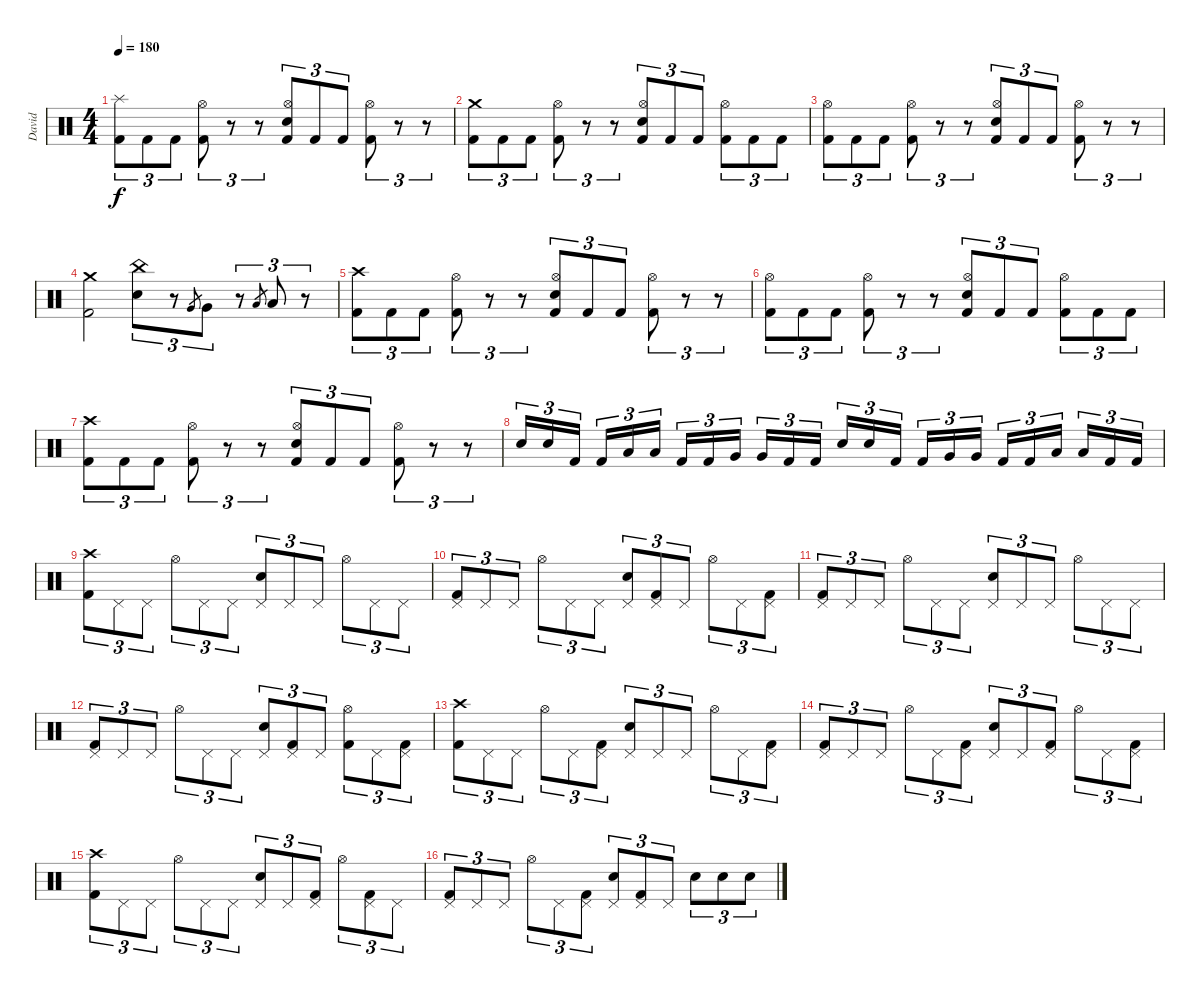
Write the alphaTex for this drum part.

\track ("David" "David") {instrument percussion}
\staff {score}
\articulation defaults
\ts (4 4)
\tempo 180
\clef neutral
\ks c
("Splash (hit)" "Kick (hit) 2").8{tu (3 2) dy f} "Kick (hit) 2".8{tu (3 2)} "Kick (hit) 2".8{tu (3 2)} ("Hi-Hat (open)" "Kick (hit) 2").8{tu (3 2)} r.8{tu (3 2)} r.8{tu (3 2)} ("Hi-Hat (open)" "Electric Snare (hit)" "Kick (hit) 2").8{tu (3 2)} "Kick (hit) 2".8{tu (3 2)} "Kick (hit) 2".8{tu (3 2)} ("Hi-Hat (open)" "Kick (hit) 2").8{tu (3 2)} r.8{tu (3 2)} r.8{tu (3 2)} |
("Crash medium (hit)" "Kick (hit) 2").8{tu (3 2)} "Kick (hit) 2".8{tu (3 2)} "Kick (hit) 2".8{tu (3 2)} ("Hi-Hat (open)" "Kick (hit) 2").8{tu (3 2)} r.8{tu (3 2)} r.8{tu (3 2)} ("Hi-Hat (open)" "Electric Snare (hit)" "Kick (hit) 2").8{tu (3 2)} "Kick (hit) 2".8{tu (3 2)} "Kick (hit) 2".8{tu (3 2)} ("Hi-Hat (open)" "Kick (hit) 2").8{tu (3 2)} "Kick (hit) 2".8{tu (3 2)} "Kick (hit) 2".8{tu (3 2)} |
("Hi-Hat (open)" "Kick (hit) 2").8{tu (3 2)} "Kick (hit) 2".8{tu (3 2)} "Kick (hit) 2".8{tu (3 2)} ("Hi-Hat (open)" "Kick (hit) 2").8{tu (3 2)} r.8{tu (3 2)} r.8{tu (3 2)} ("Hi-Hat (open)" "Electric Snare (hit)" "Kick (hit) 2").8{tu (3 2)} "Kick (hit) 2".8{tu (3 2)} "Kick (hit) 2".8{tu (3 2)} ("Hi-Hat (open)" "Kick (hit) 2").8{tu (3 2)} r.8{tu (3 2)} r.8{tu (3 2)} |
("Crash medium (hit)" "Kick (hit) 2").2 ("China (hit)" "Electric Snare (hit)").8{tu (3 2)} r.8{tu (3 2)} "Very Low Tom (hit)".8{gr} "Very Low Tom (hit)".8{tu (3 2)} r.8{tu (3 2)} "Low Floor Tom (hit)".8{gr} "Low Floor Tom (hit)".8{tu (3 2)} r.8{tu (3 2)} |
("Crash high (hit)" "Kick (hit) 2").8{tu (3 2)} "Kick (hit) 2".8{tu (3 2)} "Kick (hit) 2".8{tu (3 2)} ("Hi-Hat (open)" "Kick (hit) 2").8{tu (3 2)} r.8{tu (3 2)} r.8{tu (3 2)} ("Hi-Hat (open)" "Electric Snare (hit)" "Kick (hit) 2").8{tu (3 2)} "Kick (hit) 2".8{tu (3 2)} "Kick (hit) 2".8{tu (3 2)} ("Hi-Hat (open)" "Kick (hit) 2").8{tu (3 2)} r.8{tu (3 2)} r.8{tu (3 2)} |
("Hi-Hat (open)" "Kick (hit) 2").8{tu (3 2)} "Kick (hit) 2".8{tu (3 2)} "Kick (hit) 2".8{tu (3 2)} ("Hi-Hat (open)" "Kick (hit) 2").8{tu (3 2)} r.8{tu (3 2)} r.8{tu (3 2)} ("Hi-Hat (open)" "Electric Snare (hit)" "Kick (hit) 2").8{tu (3 2)} "Kick (hit) 2".8{tu (3 2)} "Kick (hit) 2".8{tu (3 2)} ("Hi-Hat (open)" "Kick (hit) 2").8{tu (3 2)} "Kick (hit) 2".8{tu (3 2)} "Kick (hit) 2".8{tu (3 2)} |
("Crash high (hit)" "Kick (hit) 2").8{tu (3 2)} "Kick (hit) 2".8{tu (3 2)} "Kick (hit) 2".8{tu (3 2)} ("Hi-Hat (open)" "Kick (hit) 2").8{tu (3 2)} r.8{tu (3 2)} r.8{tu (3 2)} ("Hi-Hat (open)" "Electric Snare (hit)" "Kick (hit) 2").8{tu (3 2)} "Kick (hit) 2".8{tu (3 2)} "Kick (hit) 2".8{tu (3 2)} ("Hi-Hat (open)" "Kick (hit) 2").8{tu (3 2)} r.8{tu (3 2)} r.8{tu (3 2)} |
"Electric Snare (hit)".16{tu (3 2)} "Electric Snare (hit)".16{tu (3 2)} "Kick (hit) 2".16{tu (3 2) beam splitsecondary} "Kick (hit) 2".16{tu (3 2)} "Low Tom (hit)".16{tu (3 2)} "Low Tom (hit)".16{tu (3 2)} "Kick (hit) 2".16{tu (3 2)} "Kick (hit) 2".16{tu (3 2)} "Very Low Tom (hit)".16{tu (3 2) beam splitsecondary} "Very Low Tom (hit)".16{tu (3 2)} "Kick (hit) 2".16{tu (3 2)} "Kick (hit) 2".16{tu (3 2)} "Electric Snare (hit)".16{tu (3 2)} "Electric Snare (hit)".16{tu (3 2)} "Kick (hit) 2".16{tu (3 2) beam splitsecondary} "Kick (hit) 2".16{tu (3 2)} "Very Low Tom (hit)".16{tu (3 2)} "Very Low Tom (hit)".16{tu (3 2)} "Kick (hit) 2".16{tu (3 2)} "Kick (hit) 2".16{tu (3 2)} "Low Floor Tom (hit)".16{tu (3 2) beam splitsecondary} "Low Floor Tom (hit)".16{tu (3 2)} "Kick (hit) 2".16{tu (3 2)} "Kick (hit) 2".16{tu (3 2)} |
("Crash high (hit)" "Kick (hit) 2").8{tu (3 2)} "Pedal Hi-Hat (hit)".8{tu (3 2)} "Pedal Hi-Hat (hit)".8{tu (3 2)} "Hi-Hat (open)".8{tu (3 2)} "Pedal Hi-Hat (hit)".8{tu (3 2)} "Pedal Hi-Hat (hit)".8{tu (3 2)} ("Pedal Hi-Hat (hit)" "Electric Snare (hit)").8{tu (3 2)} "Pedal Hi-Hat (hit)".8{tu (3 2)} "Pedal Hi-Hat (hit)".8{tu (3 2)} "Hi-Hat (open)".8{tu (3 2)} "Pedal Hi-Hat (hit)".8{tu (3 2)} "Pedal Hi-Hat (hit)".8{tu (3 2)} |
("Pedal Hi-Hat (hit)" "Kick (hit) 2").8{tu (3 2)} "Pedal Hi-Hat (hit)".8{tu (3 2)} "Pedal Hi-Hat (hit)".8{tu (3 2)} "Hi-Hat (open)".8{tu (3 2)} "Pedal Hi-Hat (hit)".8{tu (3 2)} "Pedal Hi-Hat (hit)".8{tu (3 2)} ("Pedal Hi-Hat (hit)" "Electric Snare (hit)").8{tu (3 2)} ("Pedal Hi-Hat (hit)" "Kick (hit) 2").8{tu (3 2)} "Pedal Hi-Hat (hit)".8{tu (3 2)} "Hi-Hat (open)".8{tu (3 2)} "Pedal Hi-Hat (hit)".8{tu (3 2)} ("Pedal Hi-Hat (hit)" "Kick (hit) 2").8{tu (3 2)} |
("Pedal Hi-Hat (hit)" "Kick (hit) 2").8{tu (3 2)} "Pedal Hi-Hat (hit)".8{tu (3 2)} "Pedal Hi-Hat (hit)".8{tu (3 2)} "Hi-Hat (open)".8{tu (3 2)} "Pedal Hi-Hat (hit)".8{tu (3 2)} "Pedal Hi-Hat (hit)".8{tu (3 2)} ("Pedal Hi-Hat (hit)" "Electric Snare (hit)").8{tu (3 2)} "Pedal Hi-Hat (hit)".8{tu (3 2)} "Pedal Hi-Hat (hit)".8{tu (3 2)} "Hi-Hat (open)".8{tu (3 2)} "Pedal Hi-Hat (hit)".8{tu (3 2)} "Pedal Hi-Hat (hit)".8{tu (3 2)} |
("Pedal Hi-Hat (hit)" "Kick (hit) 2").8{tu (3 2)} "Pedal Hi-Hat (hit)".8{tu (3 2)} "Pedal Hi-Hat (hit)".8{tu (3 2)} "Hi-Hat (open)".8{tu (3 2)} "Pedal Hi-Hat (hit)".8{tu (3 2)} "Pedal Hi-Hat (hit)".8{tu (3 2)} ("Pedal Hi-Hat (hit)" "Electric Snare (hit)").8{tu (3 2)} ("Pedal Hi-Hat (hit)" "Kick (hit) 2").8{tu (3 2)} "Pedal Hi-Hat (hit)".8{tu (3 2)} ("Hi-Hat (open)" "Kick (hit) 2").8{tu (3 2)} "Pedal Hi-Hat (hit)".8{tu (3 2)} ("Pedal Hi-Hat (hit)" "Kick (hit) 2").8{tu (3 2)} |
("Crash high (hit)" "Kick (hit) 2").8{tu (3 2)} "Pedal Hi-Hat (hit)".8{tu (3 2)} "Pedal Hi-Hat (hit)".8{tu (3 2)} "Hi-Hat (open)".8{tu (3 2)} "Pedal Hi-Hat (hit)".8{tu (3 2)} ("Pedal Hi-Hat (hit)" "Kick (hit) 2").8{tu (3 2)} ("Pedal Hi-Hat (hit)" "Electric Snare (hit)").8{tu (3 2)} "Pedal Hi-Hat (hit)".8{tu (3 2)} "Pedal Hi-Hat (hit)".8{tu (3 2)} "Hi-Hat (open)".8{tu (3 2)} "Pedal Hi-Hat (hit)".8{tu (3 2)} ("Pedal Hi-Hat (hit)" "Kick (hit) 2").8{tu (3 2)} |
("Pedal Hi-Hat (hit)" "Kick (hit) 2").8{tu (3 2)} "Pedal Hi-Hat (hit)".8{tu (3 2)} "Pedal Hi-Hat (hit)".8{tu (3 2)} "Hi-Hat (open)".8{tu (3 2)} "Pedal Hi-Hat (hit)".8{tu (3 2)} ("Pedal Hi-Hat (hit)" "Kick (hit) 2").8{tu (3 2)} ("Pedal Hi-Hat (hit)" "Electric Snare (hit)").8{tu (3 2)} "Pedal Hi-Hat (hit)".8{tu (3 2)} ("Pedal Hi-Hat (hit)" "Kick (hit) 2").8{tu (3 2)} "Hi-Hat (open)".8{tu (3 2)} "Pedal Hi-Hat (hit)".8{tu (3 2)} ("Pedal Hi-Hat (hit)" "Kick (hit) 2").8{tu (3 2)} |
("Crash high (hit)" "Kick (hit) 2").8{tu (3 2)} "Pedal Hi-Hat (hit)".8{tu (3 2)} "Pedal Hi-Hat (hit)".8{tu (3 2)} "Hi-Hat (open)".8{tu (3 2)} "Pedal Hi-Hat (hit)".8{tu (3 2)} "Pedal Hi-Hat (hit)".8{tu (3 2)} ("Pedal Hi-Hat (hit)" "Electric Snare (hit)").8{tu (3 2)} "Pedal Hi-Hat (hit)".8{tu (3 2)} ("Pedal Hi-Hat (hit)" "Kick (hit) 2").8{tu (3 2)} "Hi-Hat (open)".8{tu (3 2)} ("Pedal Hi-Hat (hit)" "Kick (hit) 2").8{tu (3 2)} "Pedal Hi-Hat (hit)".8{tu (3 2)} |
("Pedal Hi-Hat (hit)" "Kick (hit) 2").8{tu (3 2)} "Pedal Hi-Hat (hit)".8{tu (3 2)} "Pedal Hi-Hat (hit)".8{tu (3 2)} "Hi-Hat (open)".8{tu (3 2)} "Pedal Hi-Hat (hit)".8{tu (3 2)} ("Pedal Hi-Hat (hit)" "Kick (hit) 2").8{tu (3 2)} ("Pedal Hi-Hat (hit)" "Electric Snare (hit)").8{tu (3 2)} ("Pedal Hi-Hat (hit)" "Kick (hit) 2").8{tu (3 2)} "Pedal Hi-Hat (hit)".8{tu (3 2)} "Electric Snare (hit)".8{tu (3 2)} "Electric Snare (hit)".8{tu (3 2)} "Electric Snare (hit)".8{tu (3 2)}
